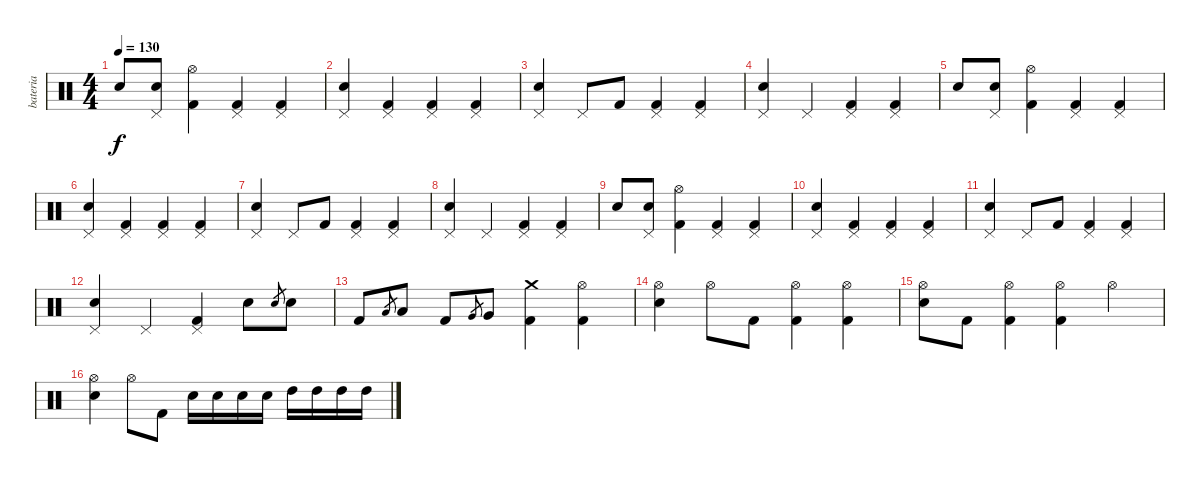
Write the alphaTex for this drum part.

\track ("bateria" "bateria") {instrument percussion}
\staff {score}
\articulation defaults
\ts (4 4)
\tempo 130
\clef neutral
\ks c "Snare (hit) 2".8{dy f}
("Pedal Hi-Hat (hit)" "Snare (hit) 2").8 ("Hi-Hat (open)" "Kick (hit) 2").4 ("Pedal Hi-Hat (hit)" "Kick (hit) 2").4 ("Pedal Hi-Hat (hit)" "Kick (hit) 2").4 |
("Pedal Hi-Hat (hit)" "Snare (hit) 2").4 ("Pedal Hi-Hat (hit)" "Kick (hit) 2").4 ("Pedal Hi-Hat (hit)" "Kick (hit) 2").4 ("Pedal Hi-Hat (hit)" "Kick (hit) 2").4 |
("Pedal Hi-Hat (hit)" "Snare (hit) 2").4 "Pedal Hi-Hat (hit)".8 "Kick (hit) 2".8 ("Pedal Hi-Hat (hit)" "Kick (hit) 2").4 ("Pedal Hi-Hat (hit)" "Kick (hit) 2").4 |
("Pedal Hi-Hat (hit)" "Snare (hit) 2").4 "Pedal Hi-Hat (hit)".4 ("Pedal Hi-Hat (hit)" "Kick (hit) 2").4 ("Pedal Hi-Hat (hit)" "Kick (hit) 2").4 |
"Snare (hit) 2".8 ("Pedal Hi-Hat (hit)" "Snare (hit) 2").8 ("Hi-Hat (open)" "Kick (hit) 2").4 ("Pedal Hi-Hat (hit)" "Kick (hit) 2").4 ("Pedal Hi-Hat (hit)" "Kick (hit) 2").4 |
("Pedal Hi-Hat (hit)" "Snare (hit) 2").4 ("Pedal Hi-Hat (hit)" "Kick (hit) 2").4 ("Pedal Hi-Hat (hit)" "Kick (hit) 2").4 ("Pedal Hi-Hat (hit)" "Kick (hit) 2").4 |
("Pedal Hi-Hat (hit)" "Snare (hit) 2").4 "Pedal Hi-Hat (hit)".8 "Kick (hit) 2".8 ("Pedal Hi-Hat (hit)" "Kick (hit) 2").4 ("Pedal Hi-Hat (hit)" "Kick (hit) 2").4 |
("Pedal Hi-Hat (hit)" "Snare (hit) 2").4 "Pedal Hi-Hat (hit)".4 ("Pedal Hi-Hat (hit)" "Kick (hit) 2").4 ("Pedal Hi-Hat (hit)" "Kick (hit) 2").4 |
"Snare (hit) 2".8 ("Pedal Hi-Hat (hit)" "Snare (hit) 2").8 ("Hi-Hat (open)" "Kick (hit) 2").4 ("Pedal Hi-Hat (hit)" "Kick (hit) 2").4 ("Pedal Hi-Hat (hit)" "Kick (hit) 2").4 |
("Pedal Hi-Hat (hit)" "Snare (hit) 2").4 ("Pedal Hi-Hat (hit)" "Kick (hit) 2").4 ("Pedal Hi-Hat (hit)" "Kick (hit) 2").4 ("Pedal Hi-Hat (hit)" "Kick (hit) 2").4 |
("Pedal Hi-Hat (hit)" "Snare (hit) 2").4 "Pedal Hi-Hat (hit)".8 "Kick (hit) 2".8 ("Pedal Hi-Hat (hit)" "Kick (hit) 2").4 ("Pedal Hi-Hat (hit)" "Kick (hit) 2").4 |
("Pedal Hi-Hat (hit)" "Snare (hit) 2").4 "Pedal Hi-Hat (hit)".4 ("Pedal Hi-Hat (hit)" "Kick (hit) 2").4 "Snare (hit) 2".8 "Snare (hit) 2".8{gr} "Snare (hit) 2".8 |
"Kick (hit) 2".8 "Low Tom (hit)".8{gr} "Low Tom (hit)".8 "Kick (hit) 2".8 "Very Low Tom (hit)".8{gr} "Very Low Tom (hit)".8 ("Crash medium (hit)" "Kick (hit) 2").4 ("Hi-Hat (open)" "Kick (hit) 2").4 |
("Hi-Hat (open)" "Snare (hit) 2").4 "Hi-Hat (open)".8 "Kick (hit) 2".8 ("Hi-Hat (open)" "Kick (hit) 2").4 ("Hi-Hat (open)" "Kick (hit) 2").4 |
("Hi-Hat (open)" "Snare (hit) 2").8 "Kick (hit) 2".8 ("Hi-Hat (open)" "Kick (hit) 2").4 ("Hi-Hat (open)" "Kick (hit) 2").4 "Hi-Hat (open)".4 |
("Hi-Hat (open)" "Snare (hit) 2").4 "Hi-Hat (open)".8 "Kick (hit) 2".8 "Snare (hit) 2".16 "Snare (hit) 2".16 "Snare (hit) 2".16 "Snare (hit) 2".16 "High Tom (hit)".16 "High Tom (hit)".16 "High Tom (hit)".16 "High Tom (hit)".16
